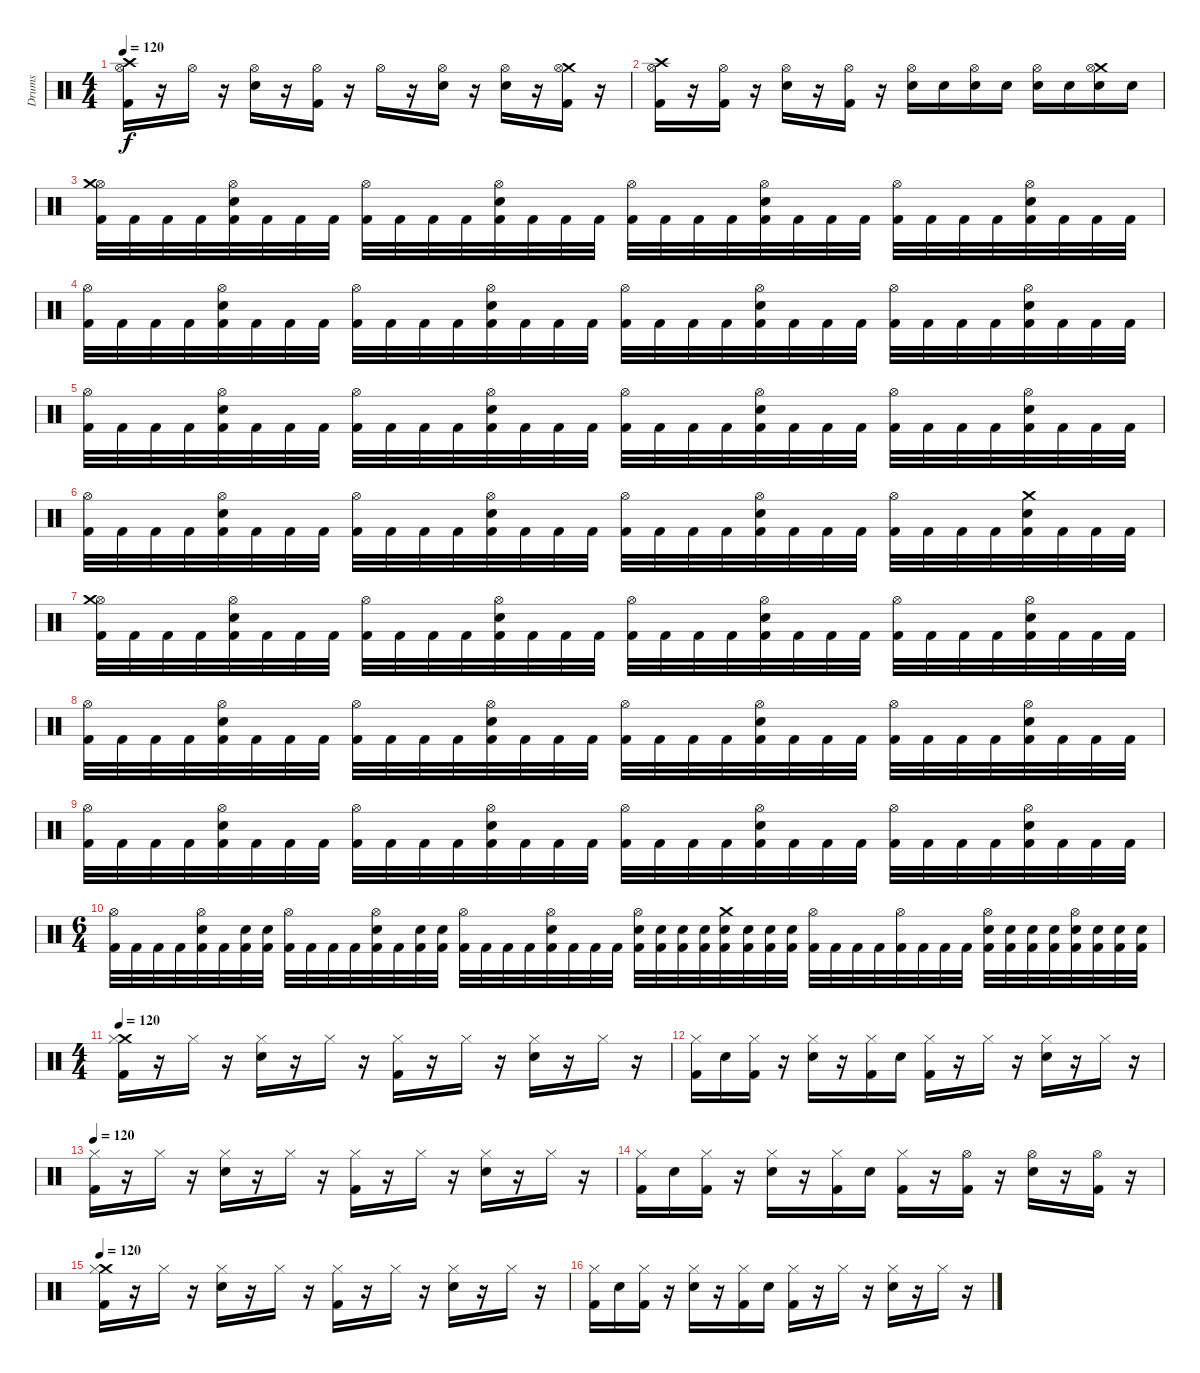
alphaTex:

\track ("Drums" "Drums") {instrument percussion}
\staff {score}
\articulation defaults
\ts (4 4)
\tempo 120
\clef neutral
\ks c
("Crash high (hit)" "Hi-Hat (open)" "Kick (hit) 2").16{dy f} r.16 "Hi-Hat (open)".16 r.16 ("Hi-Hat (open)" "Electric Snare (hit)").16 r.16 ("Hi-Hat (open)" "Kick (hit) 2").16 r.16 "Hi-Hat (open)".16 r.16 ("Hi-Hat (open)" "Electric Snare (hit)").16 r.16 ("Hi-Hat (open)" "Electric Snare (hit)").16 r.16 ("Crash medium (hit)" "Hi-Hat (open)" "Kick (hit) 2").16 r.16 |
("Crash high (hit)" "Hi-Hat (open)" "Kick (hit) 2").16 r.16 ("Hi-Hat (open)" "Kick (hit) 2").16 r.16 ("Hi-Hat (open)" "Electric Snare (hit)").16 r.16 ("Hi-Hat (open)" "Kick (hit) 2").16 r.16 ("Hi-Hat (open)" "Electric Snare (hit)").16 "Electric Snare (hit)".16 ("Hi-Hat (open)" "Electric Snare (hit)").16 "Electric Snare (hit)".16 ("Hi-Hat (open)" "Electric Snare (hit)").16 "Electric Snare (hit)".16 ("Crash medium (hit)" "Hi-Hat (open)" "Electric Snare (hit)").16 "Electric Snare (hit)".16 |
("Hi-Hat (open)" "Crash medium (hit)" "Kick (hit) 2").32 "Kick (hit) 2".32 "Kick (hit) 2".32 "Kick (hit) 2".32 ("Hi-Hat (open)" "Electric Snare (hit)" "Kick (hit) 2").32 "Kick (hit) 2".32 "Kick (hit) 2".32 "Kick (hit) 2".32 ("Hi-Hat (open)" "Kick (hit) 2").32 "Kick (hit) 2".32 "Kick (hit) 2".32 "Kick (hit) 2".32 ("Hi-Hat (open)" "Electric Snare (hit)" "Kick (hit) 2").32 "Kick (hit) 2".32 "Kick (hit) 2".32 "Kick (hit) 2".32 ("Hi-Hat (open)" "Kick (hit) 2").32 "Kick (hit) 2".32 "Kick (hit) 2".32 "Kick (hit) 2".32 ("Hi-Hat (open)" "Electric Snare (hit)" "Kick (hit) 2").32 "Kick (hit) 2".32 "Kick (hit) 2".32 "Kick (hit) 2".32 ("Hi-Hat (open)" "Kick (hit) 2").32 "Kick (hit) 2".32 "Kick (hit) 2".32 "Kick (hit) 2".32 ("Hi-Hat (open)" "Electric Snare (hit)" "Kick (hit) 2").32 "Kick (hit) 2".32 "Kick (hit) 2".32 "Kick (hit) 2".32 |
("Hi-Hat (open)" "Kick (hit) 2").32 "Kick (hit) 2".32 "Kick (hit) 2".32 "Kick (hit) 2".32 ("Hi-Hat (open)" "Electric Snare (hit)" "Kick (hit) 2").32 "Kick (hit) 2".32 "Kick (hit) 2".32 "Kick (hit) 2".32 ("Hi-Hat (open)" "Kick (hit) 2").32 "Kick (hit) 2".32 "Kick (hit) 2".32 "Kick (hit) 2".32 ("Hi-Hat (open)" "Electric Snare (hit)" "Kick (hit) 2").32 "Kick (hit) 2".32 "Kick (hit) 2".32 "Kick (hit) 2".32 ("Hi-Hat (open)" "Kick (hit) 2").32 "Kick (hit) 2".32 "Kick (hit) 2".32 "Kick (hit) 2".32 ("Hi-Hat (open)" "Electric Snare (hit)" "Kick (hit) 2").32 "Kick (hit) 2".32 "Kick (hit) 2".32 "Kick (hit) 2".32 ("Hi-Hat (open)" "Kick (hit) 2").32 "Kick (hit) 2".32 "Kick (hit) 2".32 "Kick (hit) 2".32 ("Hi-Hat (open)" "Electric Snare (hit)" "Kick (hit) 2").32 "Kick (hit) 2".32 "Kick (hit) 2".32 "Kick (hit) 2".32 |
("Hi-Hat (open)" "Kick (hit) 2").32 "Kick (hit) 2".32 "Kick (hit) 2".32 "Kick (hit) 2".32 ("Hi-Hat (open)" "Electric Snare (hit)" "Kick (hit) 2").32 "Kick (hit) 2".32 "Kick (hit) 2".32 "Kick (hit) 2".32 ("Hi-Hat (open)" "Kick (hit) 2").32 "Kick (hit) 2".32 "Kick (hit) 2".32 "Kick (hit) 2".32 ("Hi-Hat (open)" "Electric Snare (hit)" "Kick (hit) 2").32 "Kick (hit) 2".32 "Kick (hit) 2".32 "Kick (hit) 2".32 ("Hi-Hat (open)" "Kick (hit) 2").32 "Kick (hit) 2".32 "Kick (hit) 2".32 "Kick (hit) 2".32 ("Hi-Hat (open)" "Electric Snare (hit)" "Kick (hit) 2").32 "Kick (hit) 2".32 "Kick (hit) 2".32 "Kick (hit) 2".32 ("Hi-Hat (open)" "Kick (hit) 2").32 "Kick (hit) 2".32 "Kick (hit) 2".32 "Kick (hit) 2".32 ("Hi-Hat (open)" "Electric Snare (hit)" "Kick (hit) 2").32 "Kick (hit) 2".32 "Kick (hit) 2".32 "Kick (hit) 2".32 |
("Hi-Hat (open)" "Kick (hit) 2").32 "Kick (hit) 2".32 "Kick (hit) 2".32 "Kick (hit) 2".32 ("Hi-Hat (open)" "Electric Snare (hit)" "Kick (hit) 2").32 "Kick (hit) 2".32 "Kick (hit) 2".32 "Kick (hit) 2".32 ("Hi-Hat (open)" "Kick (hit) 2").32 "Kick (hit) 2".32 "Kick (hit) 2".32 "Kick (hit) 2".32 ("Hi-Hat (open)" "Electric Snare (hit)" "Kick (hit) 2").32 "Kick (hit) 2".32 "Kick (hit) 2".32 "Kick (hit) 2".32 ("Hi-Hat (open)" "Kick (hit) 2").32 "Kick (hit) 2".32 "Kick (hit) 2".32 "Kick (hit) 2".32 ("Hi-Hat (open)" "Electric Snare (hit)" "Kick (hit) 2").32 "Kick (hit) 2".32 "Kick (hit) 2".32 "Kick (hit) 2".32 ("Hi-Hat (open)" "Kick (hit) 2").32 "Kick (hit) 2".32 "Kick (hit) 2".32 "Kick (hit) 2".32 ("Crash medium (hit)" "Electric Snare (hit)" "Kick (hit) 2").32 "Kick (hit) 2".32 "Kick (hit) 2".32 "Kick (hit) 2".32 |
("Hi-Hat (open)" "Crash medium (hit)" "Kick (hit) 2").32 "Kick (hit) 2".32 "Kick (hit) 2".32 "Kick (hit) 2".32 ("Hi-Hat (open)" "Electric Snare (hit)" "Kick (hit) 2").32 "Kick (hit) 2".32 "Kick (hit) 2".32 "Kick (hit) 2".32 ("Hi-Hat (open)" "Kick (hit) 2").32 "Kick (hit) 2".32 "Kick (hit) 2".32 "Kick (hit) 2".32 ("Hi-Hat (open)" "Electric Snare (hit)" "Kick (hit) 2").32 "Kick (hit) 2".32 "Kick (hit) 2".32 "Kick (hit) 2".32 ("Hi-Hat (open)" "Kick (hit) 2").32 "Kick (hit) 2".32 "Kick (hit) 2".32 "Kick (hit) 2".32 ("Hi-Hat (open)" "Electric Snare (hit)" "Kick (hit) 2").32 "Kick (hit) 2".32 "Kick (hit) 2".32 "Kick (hit) 2".32 ("Hi-Hat (open)" "Kick (hit) 2").32 "Kick (hit) 2".32 "Kick (hit) 2".32 "Kick (hit) 2".32 ("Hi-Hat (open)" "Electric Snare (hit)" "Kick (hit) 2").32 "Kick (hit) 2".32 "Kick (hit) 2".32 "Kick (hit) 2".32 |
("Hi-Hat (open)" "Kick (hit) 2").32 "Kick (hit) 2".32 "Kick (hit) 2".32 "Kick (hit) 2".32 ("Hi-Hat (open)" "Electric Snare (hit)" "Kick (hit) 2").32 "Kick (hit) 2".32 "Kick (hit) 2".32 "Kick (hit) 2".32 ("Hi-Hat (open)" "Kick (hit) 2").32 "Kick (hit) 2".32 "Kick (hit) 2".32 "Kick (hit) 2".32 ("Hi-Hat (open)" "Electric Snare (hit)" "Kick (hit) 2").32 "Kick (hit) 2".32 "Kick (hit) 2".32 "Kick (hit) 2".32 ("Hi-Hat (open)" "Kick (hit) 2").32 "Kick (hit) 2".32 "Kick (hit) 2".32 "Kick (hit) 2".32 ("Hi-Hat (open)" "Electric Snare (hit)" "Kick (hit) 2").32 "Kick (hit) 2".32 "Kick (hit) 2".32 "Kick (hit) 2".32 ("Hi-Hat (open)" "Kick (hit) 2").32 "Kick (hit) 2".32 "Kick (hit) 2".32 "Kick (hit) 2".32 ("Hi-Hat (open)" "Electric Snare (hit)" "Kick (hit) 2").32 "Kick (hit) 2".32 "Kick (hit) 2".32 "Kick (hit) 2".32 |
("Hi-Hat (open)" "Kick (hit) 2").32 "Kick (hit) 2".32 "Kick (hit) 2".32 "Kick (hit) 2".32 ("Hi-Hat (open)" "Electric Snare (hit)" "Kick (hit) 2").32 "Kick (hit) 2".32 "Kick (hit) 2".32 "Kick (hit) 2".32 ("Hi-Hat (open)" "Kick (hit) 2").32 "Kick (hit) 2".32 "Kick (hit) 2".32 "Kick (hit) 2".32 ("Hi-Hat (open)" "Electric Snare (hit)" "Kick (hit) 2").32 "Kick (hit) 2".32 "Kick (hit) 2".32 "Kick (hit) 2".32 ("Hi-Hat (open)" "Kick (hit) 2").32 "Kick (hit) 2".32 "Kick (hit) 2".32 "Kick (hit) 2".32 ("Hi-Hat (open)" "Electric Snare (hit)" "Kick (hit) 2").32 "Kick (hit) 2".32 "Kick (hit) 2".32 "Kick (hit) 2".32 ("Hi-Hat (open)" "Kick (hit) 2").32 "Kick (hit) 2".32 "Kick (hit) 2".32 "Kick (hit) 2".32 ("Hi-Hat (open)" "Electric Snare (hit)" "Kick (hit) 2").32 "Kick (hit) 2".32 "Kick (hit) 2".32 "Kick (hit) 2".32 |
\ts (6 4)
("Hi-Hat (open)" "Kick (hit) 2").32 "Kick (hit) 2".32 "Kick (hit) 2".32 "Kick (hit) 2".32 ("Hi-Hat (open)" "Electric Snare (hit)" "Kick (hit) 2").32 "Kick (hit) 2".32 ("Electric Snare (hit)" "Kick (hit) 2").32 ("Electric Snare (hit)" "Kick (hit) 2").32 ("Hi-Hat (open)" "Kick (hit) 2").32 "Kick (hit) 2".32 "Kick (hit) 2".32 "Kick (hit) 2".32 ("Hi-Hat (open)" "Electric Snare (hit)" "Kick (hit) 2").32 "Kick (hit) 2".32 ("Electric Snare (hit)" "Kick (hit) 2").32 ("Electric Snare (hit)" "Kick (hit) 2").32 ("Hi-Hat (open)" "Kick (hit) 2").32 "Kick (hit) 2".32 "Kick (hit) 2".32 "Kick (hit) 2".32 ("Hi-Hat (open)" "Electric Snare (hit)" "Kick (hit) 2").32 "Kick (hit) 2".32 "Kick (hit) 2".32 "Kick (hit) 2".32 ("Hi-Hat (open)" "Electric Snare (hit)" "Kick (hit) 2").32 ("Electric Snare (hit)" "Kick (hit) 2").32 ("Electric Snare (hit)" "Kick (hit) 2").32 ("Electric Snare (hit)" "Kick (hit) 2").32 ("Crash medium (hit)" "Electric Snare (hit)" "Kick (hit) 2").32 ("Electric Snare (hit)" "Kick (hit) 2").32 ("Electric Snare (hit)" "Kick (hit) 2").32 ("Electric Snare (hit)" "Kick (hit) 2").32 ("Hi-Hat (open)" "Kick (hit) 2").32 "Kick (hit) 2".32 "Kick (hit) 2".32 "Kick (hit) 2".32 ("Hi-Hat (open)" "Kick (hit) 2").32 "Kick (hit) 2".32 "Kick (hit) 2".32 "Kick (hit) 2".32 ("Hi-Hat (open)" "Electric Snare (hit)" "Kick (hit) 2").32 ("Electric Snare (hit)" "Kick (hit) 2").32 ("Electric Snare (hit)" "Kick (hit) 2").32 ("Electric Snare (hit)" "Kick (hit) 2").32 ("Hi-Hat (open)" "Electric Snare (hit)" "Kick (hit) 2").32 ("Electric Snare (hit)" "Kick (hit) 2").32 ("Electric Snare (hit)" "Kick (hit) 2").32 ("Electric Snare (hit)" "Kick (hit) 2").32 |
\ts (4 4)
\tempo 120
("Crash medium (hit)" "Hi-Hat (closed)" "Kick (hit) 2").16 r.16 "Hi-Hat (closed)".16 r.16 ("Hi-Hat (closed)" "Electric Snare (hit)").16 r.16 "Hi-Hat (closed)".16 r.16 ("Hi-Hat (closed)" "Kick (hit) 2").16 r.16 "Hi-Hat (closed)".16 r.16 ("Hi-Hat (closed)" "Electric Snare (hit)").16 r.16 "Hi-Hat (closed)".16 r.16 |
("Hi-Hat (closed)" "Kick (hit) 2").16 "Electric Snare (hit)".16 ("Hi-Hat (closed)" "Kick (hit) 2").16 r.16 ("Hi-Hat (closed)" "Electric Snare (hit)").16 r.16 ("Hi-Hat (closed)" "Kick (hit) 2").16 "Electric Snare (hit)".16 ("Hi-Hat (closed)" "Kick (hit) 2").16 r.16 "Hi-Hat (closed)".16 r.16 ("Hi-Hat (closed)" "Electric Snare (hit)").16 r.16 "Hi-Hat (closed)".16 r.16 |
\tempo 120
("Hi-Hat (closed)" "Kick (hit) 2").16 r.16 "Hi-Hat (closed)".16 r.16 ("Hi-Hat (closed)" "Electric Snare (hit)").16 r.16 "Hi-Hat (closed)".16 r.16 ("Hi-Hat (closed)" "Kick (hit) 2").16 r.16 "Hi-Hat (closed)".16 r.16 ("Hi-Hat (closed)" "Electric Snare (hit)").16 r.16 "Hi-Hat (closed)".16 r.16 |
("Hi-Hat (closed)" "Kick (hit) 2").16 "Electric Snare (hit)".16 ("Hi-Hat (closed)" "Kick (hit) 2").16 r.16 ("Hi-Hat (closed)" "Electric Snare (hit)").16 r.16 ("Hi-Hat (closed)" "Kick (hit) 2").16 "Electric Snare (hit)".16 ("Hi-Hat (closed)" "Kick (hit) 2").16 r.16 ("Hi-Hat (open)" "Kick (hit) 2").16 r.16 ("Hi-Hat (open)" "Electric Snare (hit)").16 r.16 ("Hi-Hat (open)" "Kick (hit) 2").16 r.16 |
\tempo 120
("Crash medium (hit)" "Hi-Hat (closed)" "Kick (hit) 2").16 r.16 "Hi-Hat (closed)".16 r.16 ("Hi-Hat (closed)" "Electric Snare (hit)").16 r.16 "Hi-Hat (closed)".16 r.16 ("Hi-Hat (closed)" "Kick (hit) 2").16 r.16 "Hi-Hat (closed)".16 r.16 ("Hi-Hat (closed)" "Electric Snare (hit)").16 r.16 "Hi-Hat (closed)".16 r.16 |
("Hi-Hat (closed)" "Kick (hit) 2").16 "Electric Snare (hit)".16 ("Hi-Hat (closed)" "Kick (hit) 2").16 r.16 ("Hi-Hat (closed)" "Electric Snare (hit)").16 r.16 ("Hi-Hat (closed)" "Kick (hit) 2").16 "Electric Snare (hit)".16 ("Hi-Hat (closed)" "Kick (hit) 2").16 r.16 "Hi-Hat (closed)".16 r.16 ("Hi-Hat (closed)" "Electric Snare (hit)").16 r.16 "Hi-Hat (closed)".16 r.16
